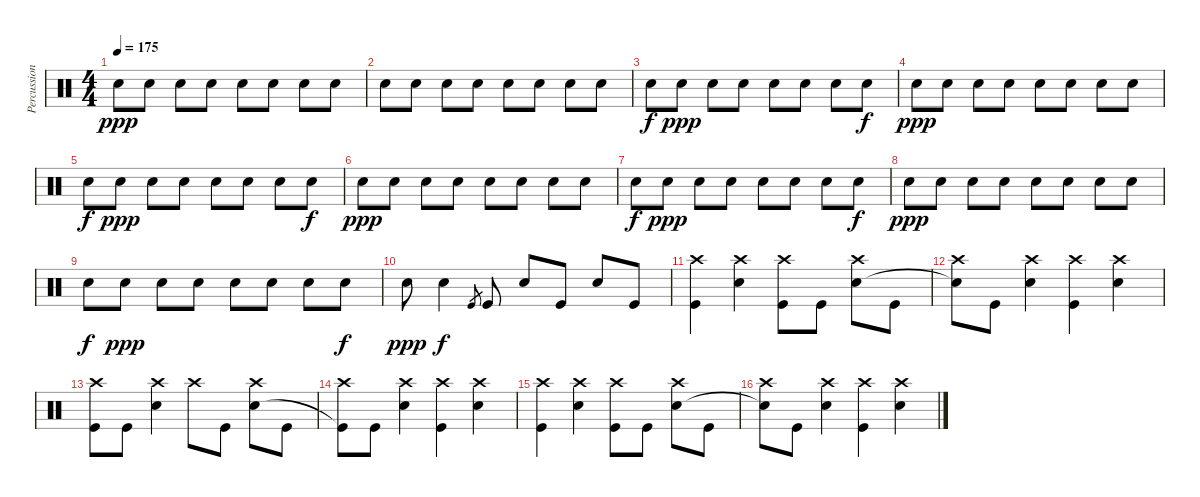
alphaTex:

\track ("Percussion" "Percussion") {instrument percussion}
\staff {score}
\articulation defaults
\ts (4 4)
\tempo 175
\clef neutral
\ks c "Snare (hit) 2".8{dy ppp} "Snare (hit) 2".8 "Snare (hit) 2".8 "Snare (hit) 2".8 "Snare (hit) 2".8 "Snare (hit) 2".8 "Snare (hit) 2".8 "Snare (hit) 2".8
|
"Snare (hit) 2".8 "Snare (hit) 2".8 "Snare (hit) 2".8 "Snare (hit) 2".8 "Snare (hit) 2".8 "Snare (hit) 2".8 "Snare (hit) 2".8 "Snare (hit) 2".8 |
"Snare (hit) 2".8{dy f} "Snare (hit) 2".8{dy ppp} "Snare (hit) 2".8 "Snare (hit) 2".8 "Snare (hit) 2".8 "Snare (hit) 2".8 "Snare (hit) 2".8 "Snare (hit) 2".8{dy f} |
"Snare (hit) 2".8{dy ppp} "Snare (hit) 2".8 "Snare (hit) 2".8 "Snare (hit) 2".8 "Snare (hit) 2".8 "Snare (hit) 2".8 "Snare (hit) 2".8 "Snare (hit) 2".8 |
"Snare (hit) 2".8{dy f} "Snare (hit) 2".8{dy ppp} "Snare (hit) 2".8 "Snare (hit) 2".8 "Snare (hit) 2".8 "Snare (hit) 2".8 "Snare (hit) 2".8 "Snare (hit) 2".8{dy f} |
"Snare (hit) 2".8{dy ppp} "Snare (hit) 2".8 "Snare (hit) 2".8 "Snare (hit) 2".8 "Snare (hit) 2".8 "Snare (hit) 2".8 "Snare (hit) 2".8 "Snare (hit) 2".8 |
"Snare (hit) 2".8{dy f} "Snare (hit) 2".8{dy ppp} "Snare (hit) 2".8 "Snare (hit) 2".8 "Snare (hit) 2".8 "Snare (hit) 2".8 "Snare (hit) 2".8 "Snare (hit) 2".8{dy f} |
"Snare (hit) 2".8{dy ppp} "Snare (hit) 2".8 "Snare (hit) 2".8 "Snare (hit) 2".8 "Snare (hit) 2".8 "Snare (hit) 2".8 "Snare (hit) 2".8 "Snare (hit) 2".8 |
"Snare (hit) 2".8{dy f} "Snare (hit) 2".8{dy ppp} "Snare (hit) 2".8 "Snare (hit) 2".8 "Snare (hit) 2".8 "Snare (hit) 2".8 "Snare (hit) 2".8 "Snare (hit) 2".8{dy f} |
"Snare (hit) 2".8{dy ppp} "Snare (hit) 2".4{dy f} "Kick (hit)".8{gr} "Kick (hit)".8 "Snare (hit) 2".8 "Kick (hit)".8 "Snare (hit) 2".8 "Kick (hit)".8 |
("Crash high (hit)" "Kick (hit)").4 ("Crash high (hit)" "Snare (hit) 2").4 ("Crash high (hit)" "Kick (hit)").8 "Kick (hit)".8 ("Crash high (hit)" "Snare (hit) 2").8 "Kick (hit)".8 |
("Crash high (hit)" "Snare (hit)"{t}).8 "Kick (hit)".8 ("Crash high (hit)" "Snare (hit) 2").4 ("Crash high (hit)" "Kick (hit)").4 ("Crash high (hit)" "Snare (hit) 2").4 |
("Crash high (hit)" "Kick (hit)").8 "Kick (hit)".8 ("Crash high (hit)" "Snare (hit) 2").4 "Crash high (hit)".8 "Kick (hit)".8 ("Crash high (hit)" "Snare (hit) 2").8 "Kick (hit)".8 |
("Crash high (hit)" "Kick (hit)"{t}).8 "Kick (hit)".8 ("Crash high (hit)" "Snare (hit) 2").4 ("Crash high (hit)" "Kick (hit)").4 ("Crash high (hit)" "Snare (hit) 2").4 |
("Crash high (hit)" "Kick (hit)").4 ("Crash high (hit)" "Snare (hit) 2").4 ("Crash high (hit)" "Kick (hit)").8 "Kick (hit)".8 ("Crash high (hit)" "Snare (hit) 2").8 "Kick (hit)".8 |
("Crash high (hit)" "Snare (hit)"{t}).8 "Kick (hit)".8 ("Crash high (hit)" "Snare (hit) 2").4 ("Crash high (hit)" "Kick (hit)").4 ("Crash high (hit)" "Snare (hit) 2").4
